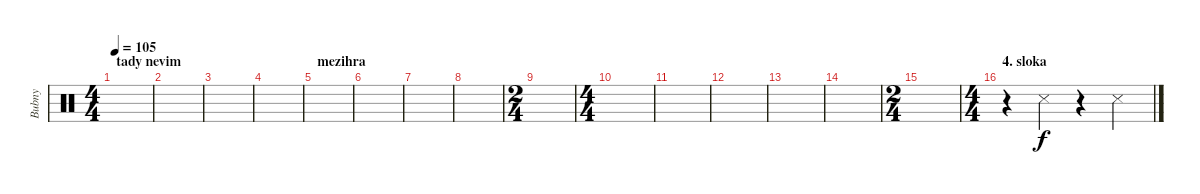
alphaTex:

\track ("Bubny" "Bubny") {instrument percussion}
\staff {score}
\articulation defaults
\ts (4 4)
\section ("" "tady nevim")
\tempo 105
\clef neutral
\ks c
|
|
|
|
\section ("" "mezihra")
|
|
|
|
\ts (2 4)
|
\ts (4 4)
|
|
|
|
|
\ts (2 4)
|
\ts (4 4)
\section ("" "4. sloka")
r.4{volume 16} "Snare (side stick) 3".4{dy f} r.4 "Snare (side stick) 3".4
